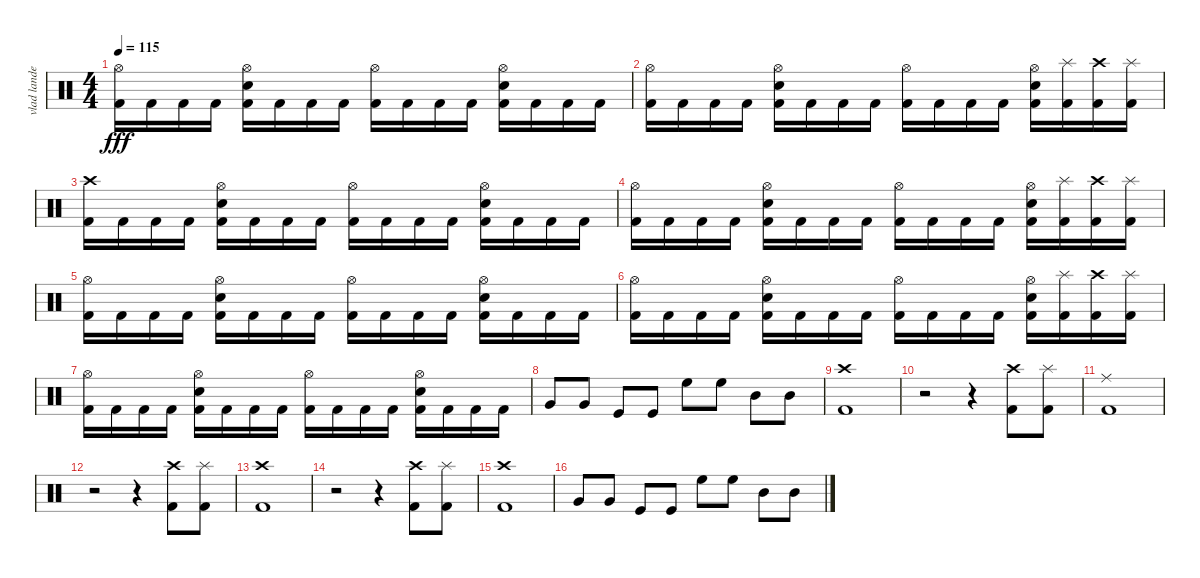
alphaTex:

\track ("vlad landeros" "vlad lande") {instrument percussion}
\staff {score}
\articulation defaults
\ts (4 4)
\tempo 115
\clef neutral
\ks c
("Hi-Hat (open)" "Kick (hit) 2").16{dy fff} "Kick (hit) 2".16 "Kick (hit) 2".16 "Kick (hit) 2".16 ("Hi-Hat (open)" "Electric Snare (hit)" "Kick (hit) 2").16 "Kick (hit) 2".16 "Kick (hit) 2".16 "Kick (hit) 2".16 ("Hi-Hat (open)" "Kick (hit) 2").16 "Kick (hit) 2".16 "Kick (hit) 2".16 "Kick (hit) 2".16 ("Hi-Hat (open)" "Electric Snare (hit)" "Kick (hit) 2").16 "Kick (hit) 2".16 "Kick (hit) 2".16 "Kick (hit) 2".16 |
("Hi-Hat (open)" "Kick (hit) 2").16 "Kick (hit) 2".16 "Kick (hit) 2".16 "Kick (hit) 2".16 ("Hi-Hat (open)" "Electric Snare (hit)" "Kick (hit) 2").16 "Kick (hit) 2".16 "Kick (hit) 2".16 "Kick (hit) 2".16 ("Hi-Hat (open)" "Kick (hit) 2").16 "Kick (hit) 2".16 "Kick (hit) 2".16 "Kick (hit) 2".16 ("Hi-Hat (open)" "Electric Snare (hit)" "Kick (hit) 2").16 ("Splash (hit)" "Kick (hit) 2").16 ("Crash high (hit)" "Kick (hit) 2").16 ("Splash (hit)" "Kick (hit) 2").16 |
("Crash high (hit)" "Kick (hit) 2").16 "Kick (hit) 2".16 "Kick (hit) 2".16 "Kick (hit) 2".16 ("Hi-Hat (open)" "Electric Snare (hit)" "Kick (hit) 2").16 "Kick (hit) 2".16 "Kick (hit) 2".16 "Kick (hit) 2".16 ("Hi-Hat (open)" "Kick (hit) 2").16 "Kick (hit) 2".16 "Kick (hit) 2".16 "Kick (hit) 2".16 ("Hi-Hat (open)" "Electric Snare (hit)" "Kick (hit) 2").16 "Kick (hit) 2".16 "Kick (hit) 2".16 "Kick (hit) 2".16 |
("Hi-Hat (open)" "Kick (hit) 2").16 "Kick (hit) 2".16 "Kick (hit) 2".16 "Kick (hit) 2".16 ("Hi-Hat (open)" "Electric Snare (hit)" "Kick (hit) 2").16 "Kick (hit) 2".16 "Kick (hit) 2".16 "Kick (hit) 2".16 ("Hi-Hat (open)" "Kick (hit) 2").16 "Kick (hit) 2".16 "Kick (hit) 2".16 "Kick (hit) 2".16 ("Hi-Hat (open)" "Electric Snare (hit)" "Kick (hit) 2").16 ("Splash (hit)" "Kick (hit) 2").16 ("Crash high (hit)" "Kick (hit) 2").16 ("Splash (hit)" "Kick (hit) 2").16 |
("Hi-Hat (open)" "Kick (hit) 2").16 "Kick (hit) 2".16 "Kick (hit) 2".16 "Kick (hit) 2".16 ("Hi-Hat (open)" "Electric Snare (hit)" "Kick (hit) 2").16 "Kick (hit) 2".16 "Kick (hit) 2".16 "Kick (hit) 2".16 ("Hi-Hat (open)" "Kick (hit) 2").16 "Kick (hit) 2".16 "Kick (hit) 2".16 "Kick (hit) 2".16 ("Hi-Hat (open)" "Electric Snare (hit)" "Kick (hit) 2").16 "Kick (hit) 2".16 "Kick (hit) 2".16 "Kick (hit) 2".16 |
("Hi-Hat (open)" "Kick (hit) 2").16 "Kick (hit) 2".16 "Kick (hit) 2".16 "Kick (hit) 2".16 ("Hi-Hat (open)" "Electric Snare (hit)" "Kick (hit) 2").16 "Kick (hit) 2".16 "Kick (hit) 2".16 "Kick (hit) 2".16 ("Hi-Hat (open)" "Kick (hit) 2").16 "Kick (hit) 2".16 "Kick (hit) 2".16 "Kick (hit) 2".16 ("Hi-Hat (open)" "Electric Snare (hit)" "Kick (hit) 2").16 ("Splash (hit)" "Kick (hit) 2").16 ("Crash high (hit)" "Kick (hit) 2").16 ("Splash (hit)" "Kick (hit) 2").16 |
("Hi-Hat (open)" "Kick (hit) 2").16 "Kick (hit) 2".16 "Kick (hit) 2".16 "Kick (hit) 2".16 ("Hi-Hat (open)" "Electric Snare (hit)" "Kick (hit) 2").16 "Kick (hit) 2".16 "Kick (hit) 2".16 "Kick (hit) 2".16 ("Hi-Hat (open)" "Kick (hit) 2").16 "Kick (hit) 2".16 "Kick (hit) 2".16 "Kick (hit) 2".16 ("Hi-Hat (open)" "Electric Snare (hit)" "Kick (hit) 2").16 "Kick (hit) 2".16 "Kick (hit) 2".16 "Kick (hit) 2".16 |
"Very Low Tom (hit)".8 "Very Low Tom (hit)".8 "Kick (hit)".8 "Kick (hit)".8 "High Floor Tom (hit)".8 "High Floor Tom (hit)".8 "Mid Tom (hit)".8 "Mid Tom (hit)".8 |
("Crash high (hit)" "Kick (hit) 2").1 |
r.2 r.4 ("Crash high (hit)" "Kick (hit) 2").8 ("Splash (hit)" "Kick (hit) 2").8 |
("Ride (middle)" "Kick (hit) 2").1 |
r.2 r.4 ("Crash high (hit)" "Kick (hit) 2").8 ("Splash (hit)" "Kick (hit) 2").8 |
("Crash high (hit)" "Kick (hit) 2").1 |
r.2 r.4 ("Crash high (hit)" "Kick (hit) 2").8 ("Splash (hit)" "Kick (hit) 2").8 |
("Crash high (hit)" "Kick (hit) 2").1 |
"Very Low Tom (hit)".8 "Very Low Tom (hit)".8 "Kick (hit)".8 "Kick (hit)".8 "High Floor Tom (hit)".8 "High Floor Tom (hit)".8 "Mid Tom (hit)".8 "Mid Tom (hit)".8
